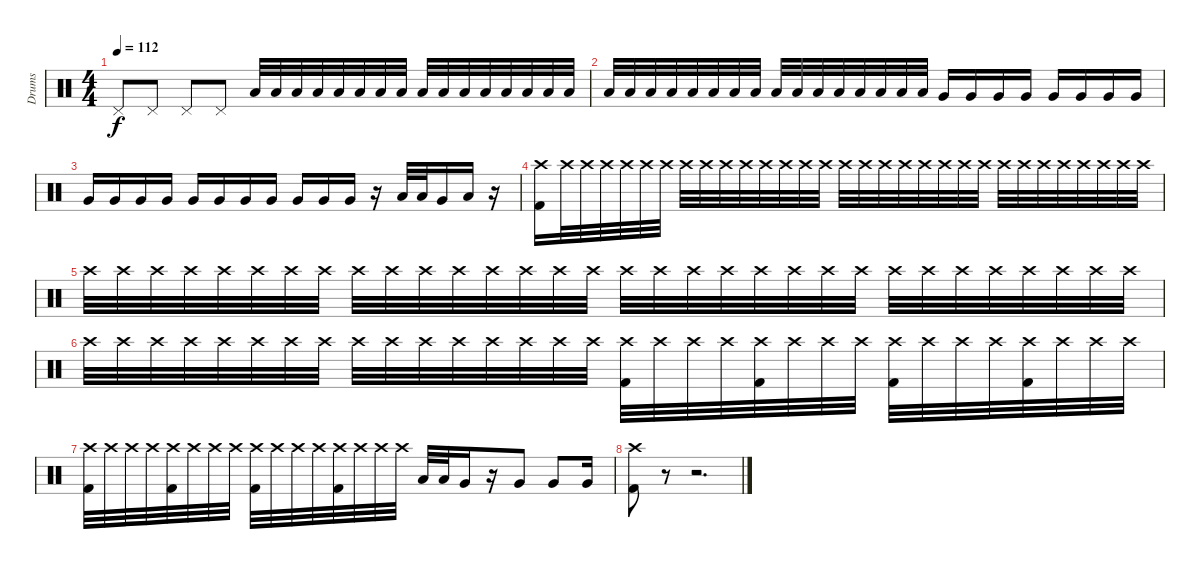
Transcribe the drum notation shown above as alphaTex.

\track ("Drums" "Drums") {instrument percussion}
\staff {score}
\articulation defaults
\ts (4 4)
\tempo 112
\clef neutral
\ks c "Pedal Hi-Hat (hit)".8{dy f} "Pedal Hi-Hat (hit)".8 "Pedal Hi-Hat (hit)".8 "Pedal Hi-Hat (hit)".8 "Low Tom (hit)".32 "Low Tom (hit)".32 "Low Tom (hit)".32 "Low Tom (hit)".32 "Low Tom (hit)".32 "Low Tom (hit)".32 "Low Tom (hit)".32 "Low Tom (hit)".32 "Low Tom (hit)".32 "Low Tom (hit)".32 "Low Tom (hit)".32 "Low Tom (hit)".32 "Low Tom (hit)".32 "Low Tom (hit)".32 "Low Tom (hit)".32 "Low Tom (hit)".32
|
"Low Tom (hit)".32 "Low Tom (hit)".32 "Low Tom (hit)".32 "Low Tom (hit)".32 "Low Tom (hit)".32 "Low Tom (hit)".32 "Low Tom (hit)".32 "Low Tom (hit)".32 "Low Tom (hit)".32 "Low Tom (hit)".32 "Low Tom (hit)".32 "Low Tom (hit)".32 "Low Tom (hit)".32 "Low Tom (hit)".32 "Low Tom (hit)".32 "Low Tom (hit)".32 "Very Low Tom (hit)".16 "Very Low Tom (hit)".16 "Very Low Tom (hit)".16 "Very Low Tom (hit)".16 "Very Low Tom (hit)".16 "Very Low Tom (hit)".16 "Very Low Tom (hit)".16 "Very Low Tom (hit)".16 |
"Very Low Tom (hit)".16 "Very Low Tom (hit)".16 "Very Low Tom (hit)".16 "Very Low Tom (hit)".16 "Very Low Tom (hit)".16 "Very Low Tom (hit)".16 "Very Low Tom (hit)".16 "Very Low Tom (hit)".16 "Very Low Tom (hit)".16 "Very Low Tom (hit)".16 "Very Low Tom (hit)".16 r.16 "Low Tom (hit)".32 "Low Tom (hit)".32 "Very Low Tom (hit)".16 "Low Floor Tom (hit)".16 r.16 |
("Crash high (hit)" "Kick (hit) 2").16 "Crash high (hit)".32 "Crash high (hit)".32 "Crash high (hit)".32 "Crash high (hit)".32 "Crash high (hit)".32 "Crash high (hit)".32 "Crash high (hit)".32 "Crash high (hit)".32 "Crash high (hit)".32 "Crash high (hit)".32 "Crash high (hit)".32 "Crash high (hit)".32 "Crash high (hit)".32 "Crash high (hit)".32 "Crash high (hit)".32 "Crash high (hit)".32 "Crash high (hit)".32 "Crash high (hit)".32 "Crash high (hit)".32 "Crash high (hit)".32 "Crash high (hit)".32 "Crash high (hit)".32 "Crash high (hit)".32 "Crash high (hit)".32 "Crash high (hit)".32 "Crash high (hit)".32 "Crash high (hit)".32 "Crash high (hit)".32 "Crash high (hit)".32 "Crash high (hit)".32 |
"Crash high (hit)".32 "Crash high (hit)".32 "Crash high (hit)".32 "Crash high (hit)".32 "Crash high (hit)".32 "Crash high (hit)".32 "Crash high (hit)".32 "Crash high (hit)".32 "Crash high (hit)".32 "Crash high (hit)".32 "Crash high (hit)".32 "Crash high (hit)".32 "Crash high (hit)".32 "Crash high (hit)".32 "Crash high (hit)".32 "Crash high (hit)".32 "Crash high (hit)".32 "Crash high (hit)".32 "Crash high (hit)".32 "Crash high (hit)".32 "Crash high (hit)".32 "Crash high (hit)".32 "Crash high (hit)".32 "Crash high (hit)".32 "Crash high (hit)".32 "Crash high (hit)".32 "Crash high (hit)".32 "Crash high (hit)".32 "Crash high (hit)".32 "Crash high (hit)".32 "Crash high (hit)".32 "Crash high (hit)".32 |
"Crash high (hit)".32 "Crash high (hit)".32 "Crash high (hit)".32 "Crash high (hit)".32 "Crash high (hit)".32 "Crash high (hit)".32 "Crash high (hit)".32 "Crash high (hit)".32 "Crash high (hit)".32 "Crash high (hit)".32 "Crash high (hit)".32 "Crash high (hit)".32 "Crash high (hit)".32 "Crash high (hit)".32 "Crash high (hit)".32 "Crash high (hit)".32 ("Crash high (hit)" "Kick (hit) 2").32 "Crash high (hit)".32 "Crash high (hit)".32 "Crash high (hit)".32 ("Crash high (hit)" "Kick (hit) 2").32 "Crash high (hit)".32 "Crash high (hit)".32 "Crash high (hit)".32 ("Crash high (hit)" "Kick (hit) 2").32 "Crash high (hit)".32 "Crash high (hit)".32 "Crash high (hit)".32 ("Crash high (hit)" "Kick (hit) 2").32 "Crash high (hit)".32 "Crash high (hit)".32 "Crash high (hit)".32 |
("Crash high (hit)" "Kick (hit) 2").32 "Crash high (hit)".32 "Crash high (hit)".32 "Crash high (hit)".32 ("Crash high (hit)" "Kick (hit) 2").32 "Crash high (hit)".32 "Crash high (hit)".32 "Crash high (hit)".32 ("Crash high (hit)" "Kick (hit) 2").32 "Crash high (hit)".32 "Crash high (hit)".32 "Crash high (hit)".32 ("Crash high (hit)" "Kick (hit) 2").32 "Crash high (hit)".32 "Crash high (hit)".32 "Crash high (hit)".32 "Low Tom (hit)".32 "Low Tom (hit)".32 "Very Low Tom (hit)".16 r.16 "Very Low Tom (hit)".8 "Very Low Tom (hit)".8 "Very Low Tom (hit)".16 |
("Crash high (hit)" "Kick (hit) 2").8 r.8 r.2{d}
